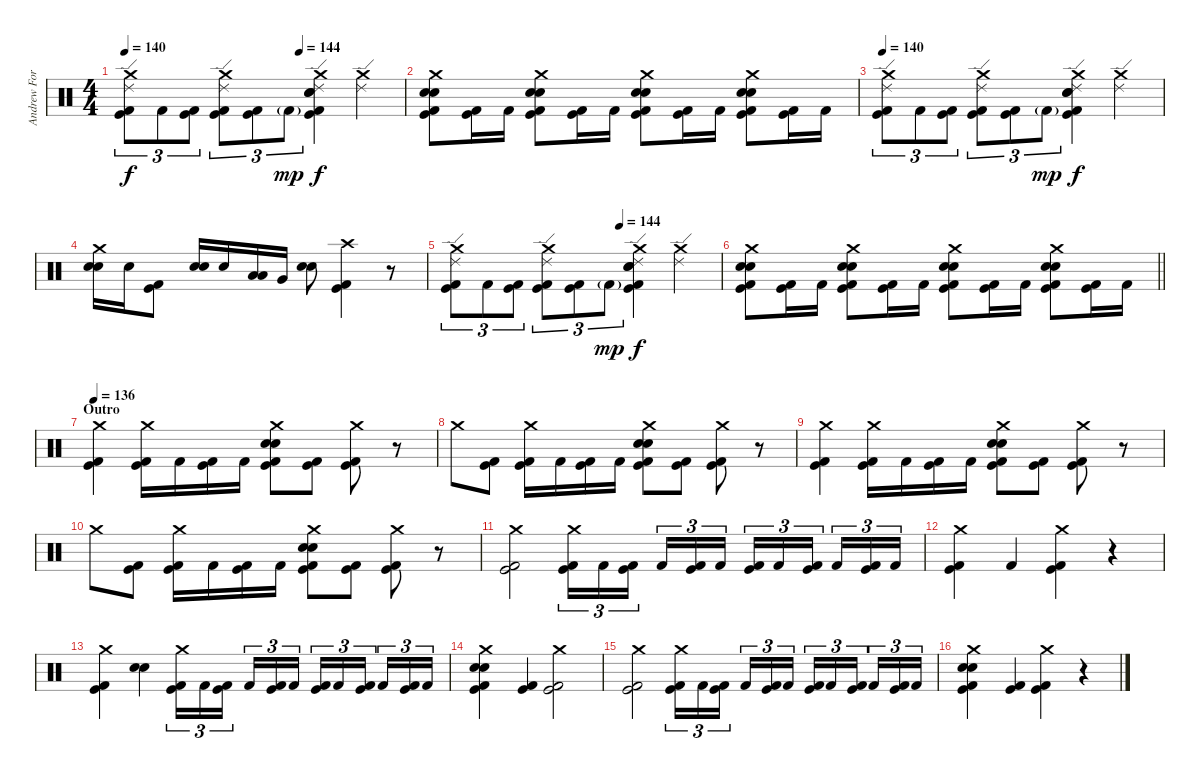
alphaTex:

\track ("Andrew Forsman" "Andrew For") {instrument percussion}
\staff {score}
\articulation defaults
\ts (4 4)
\tempo 140
\tempo (144 0.625)
\clef neutral
\ks c
("Crash medium (hit)" "Ride (edge) 2" "Kick (hit)" "Kick (hit) 2").8{tu (3 2) dy f} "Kick (hit) 2".8{tu (3 2)} ("Kick (hit)" "Kick (hit) 2").8{tu (3 2)} ("Crash medium (hit)" "Ride (edge) 2" "Kick (hit)" "Kick (hit) 2").8{tu (3 2)} ("Kick (hit)" "Kick (hit) 2").8{tu (3 2)} "Kick (hit) 2"{g}.8{tu (3 2) dy mp} ("Crash medium (hit)" "Ride (edge) 2" "Electric Snare (hit)" "Electric Snare (hit)" "Kick (hit)" "Kick (hit) 2").4{dy f} ("Crash medium (hit)" "Ride (edge) 2").4 |
("Crash medium (hit)" "Electric Snare (hit)" "Electric Snare (hit)" "Kick (hit)" "Kick (hit) 2").8 ("Kick (hit)" "Kick (hit) 2").16 "Kick (hit) 2".16 ("Crash medium (hit)" "Electric Snare (hit)" "Electric Snare (hit)" "Kick (hit)" "Kick (hit) 2").8 ("Kick (hit)" "Kick (hit) 2").16 "Kick (hit) 2".16 ("Crash medium (hit)" "Electric Snare (hit)" "Electric Snare (hit)" "Kick (hit)" "Kick (hit) 2").8 ("Kick (hit)" "Kick (hit) 2").16 "Kick (hit) 2".16 ("Crash medium (hit)" "Electric Snare (hit)" "Electric Snare (hit)" "Kick (hit)" "Kick (hit) 2").8 ("Kick (hit)" "Kick (hit) 2").16 "Kick (hit) 2".16 |
\tempo 140
("Crash medium (hit)" "Ride (edge) 2" "Kick (hit)" "Kick (hit) 2").8{tu (3 2)} "Kick (hit) 2".8{tu (3 2)} ("Kick (hit)" "Kick (hit) 2").8{tu (3 2)} ("Crash medium (hit)" "Ride (edge) 2" "Kick (hit)" "Kick (hit) 2").8{tu (3 2)} ("Kick (hit)" "Kick (hit) 2").8{tu (3 2)} "Kick (hit) 2"{g}.8{tu (3 2) dy mp} ("Crash medium (hit)" "Ride (edge) 2" "Electric Snare (hit)" "Electric Snare (hit)" "Kick (hit)" "Kick (hit) 2").4{dy f} ("Crash medium (hit)" "Ride (edge) 2").4 |
("Crash medium (hit)" "Electric Snare (hit)" "Electric Snare (hit)").16 "Electric Snare (hit)".16 ("Kick (hit)" "Kick (hit) 2").8 ("Electric Snare (hit)" "Electric Snare (hit)").16 "Electric Snare (hit)".16 ("Low Tom (hit)" "Low Tom (hit)").16 "Very Low Tom (hit)".16 ("Electric Snare (hit)" "Electric Snare (hit)").8 ("Crash high (hit)" "Kick (hit)" "Kick (hit) 2").4 r.8 |
\tempo (144 0.625)
("Crash medium (hit)" "Ride (edge) 2" "Kick (hit)" "Kick (hit) 2").8{tu (3 2)} "Kick (hit) 2".8{tu (3 2)} ("Kick (hit)" "Kick (hit) 2").8{tu (3 2)} ("Crash medium (hit)" "Ride (edge) 2" "Kick (hit)" "Kick (hit) 2").8{tu (3 2)} ("Kick (hit)" "Kick (hit) 2").8{tu (3 2)} "Kick (hit) 2"{g}.8{tu (3 2) dy mp} ("Crash medium (hit)" "Ride (edge) 2" "Electric Snare (hit)" "Electric Snare (hit)" "Kick (hit)" "Kick (hit) 2").4{dy f} ("Crash medium (hit)" "Ride (edge) 2").4 |
\barLineRight lightlight
("Crash medium (hit)" "Electric Snare (hit)" "Electric Snare (hit)" "Kick (hit)" "Kick (hit) 2").8 ("Kick (hit)" "Kick (hit) 2").16 "Kick (hit) 2".16 ("Crash medium (hit)" "Electric Snare (hit)" "Electric Snare (hit)" "Kick (hit)" "Kick (hit) 2").8 ("Kick (hit)" "Kick (hit) 2").16 "Kick (hit) 2".16 ("Crash medium (hit)" "Electric Snare (hit)" "Electric Snare (hit)" "Kick (hit)" "Kick (hit) 2").8 ("Kick (hit)" "Kick (hit) 2").16 "Kick (hit) 2".16 ("Crash medium (hit)" "Electric Snare (hit)" "Electric Snare (hit)" "Kick (hit)" "Kick (hit) 2").8 ("Kick (hit)" "Kick (hit) 2").16 "Kick (hit) 2".16 |
\section ("" "Outro")
\tempo 136
("Crash medium (hit)" "Kick (hit)" "Kick (hit) 2").4 ("Crash medium (hit)" "Kick (hit)" "Kick (hit) 2").16 "Kick (hit) 2".16 ("Kick (hit)" "Kick (hit) 2").16 "Kick (hit) 2".16 ("Crash medium (hit)" "Electric Snare (hit)" "Electric Snare (hit)" "Kick (hit)" "Kick (hit) 2").8 ("Kick (hit)" "Kick (hit) 2").8 ("Crash medium (hit)" "Kick (hit)" "Kick (hit) 2").8 r.8 |
"Crash medium (hit)".8 ("Kick (hit)" "Kick (hit) 2").8 ("Crash medium (hit)" "Kick (hit)" "Kick (hit) 2").16 "Kick (hit) 2".16 ("Kick (hit)" "Kick (hit) 2").16 "Kick (hit) 2".16 ("Crash medium (hit)" "Electric Snare (hit)" "Electric Snare (hit)" "Kick (hit)" "Kick (hit) 2").8 ("Kick (hit)" "Kick (hit) 2").8 ("Crash medium (hit)" "Kick (hit)" "Kick (hit) 2").8 r.8 |
("Crash medium (hit)" "Kick (hit)" "Kick (hit) 2").4 ("Crash medium (hit)" "Kick (hit)" "Kick (hit) 2").16 "Kick (hit) 2".16 ("Kick (hit)" "Kick (hit) 2").16 "Kick (hit) 2".16 ("Crash medium (hit)" "Electric Snare (hit)" "Electric Snare (hit)" "Kick (hit)" "Kick (hit) 2").8 ("Kick (hit)" "Kick (hit) 2").8 ("Crash medium (hit)" "Kick (hit)" "Kick (hit) 2").8 r.8 |
"Crash medium (hit)".8 ("Kick (hit)" "Kick (hit) 2").8 ("Crash medium (hit)" "Kick (hit)" "Kick (hit) 2").16 "Kick (hit) 2".16 ("Kick (hit)" "Kick (hit) 2").16 "Kick (hit) 2".16 ("Crash medium (hit)" "Electric Snare (hit)" "Electric Snare (hit)" "Kick (hit)" "Kick (hit) 2").8 ("Kick (hit)" "Kick (hit) 2").8 ("Crash medium (hit)" "Kick (hit)" "Kick (hit) 2").8 r.8 |
("Crash medium (hit)" "Kick (hit)" "Kick (hit) 2").2 ("Crash medium (hit)" "Kick (hit)" "Kick (hit) 2").16{tu (3 2)} "Kick (hit) 2".16{tu (3 2)} ("Kick (hit)" "Kick (hit) 2").16{tu (3 2) beam splitsecondary} "Kick (hit) 2".16{tu (3 2)} ("Kick (hit)" "Kick (hit) 2").16{tu (3 2)} "Kick (hit) 2".16{tu (3 2)} ("Kick (hit)" "Kick (hit) 2").16{tu (3 2)} "Kick (hit) 2".16{tu (3 2)} ("Kick (hit)" "Kick (hit) 2").16{tu (3 2) beam splitsecondary} "Kick (hit) 2".16{tu (3 2)} ("Kick (hit)" "Kick (hit) 2").16{tu (3 2)} "Kick (hit) 2".16{tu (3 2)} |
("Crash medium (hit)" "Kick (hit)" "Kick (hit) 2").4 "Kick (hit) 2".4 ("Crash medium (hit)" "Kick (hit)" "Kick (hit) 2").4 r.4 |
("Crash medium (hit)" "Kick (hit)" "Kick (hit) 2").4 ("Electric Snare (hit)" "Electric Snare (hit)").4 ("Crash medium (hit)" "Kick (hit)" "Kick (hit) 2").16{tu (3 2)} "Kick (hit) 2".16{tu (3 2)} ("Kick (hit)" "Kick (hit) 2").16{tu (3 2) beam splitsecondary} "Kick (hit) 2".16{tu (3 2)} ("Kick (hit)" "Kick (hit) 2").16{tu (3 2)} "Kick (hit) 2".16{tu (3 2)} ("Kick (hit)" "Kick (hit) 2").16{tu (3 2)} "Kick (hit) 2".16{tu (3 2)} ("Kick (hit)" "Kick (hit) 2").16{tu (3 2) beam splitsecondary} "Kick (hit) 2".16{tu (3 2)} ("Kick (hit)" "Kick (hit) 2").16{tu (3 2)} "Kick (hit) 2".16{tu (3 2)} |
("Crash medium (hit)" "Electric Snare (hit)" "Electric Snare (hit)" "Kick (hit)" "Kick (hit) 2").4 ("Kick (hit)" "Kick (hit) 2").4 ("Crash medium (hit)" "Kick (hit)" "Kick (hit) 2").2 |
("Crash medium (hit)" "Kick (hit)" "Kick (hit) 2").2 ("Crash medium (hit)" "Kick (hit)" "Kick (hit) 2").16{tu (3 2)} "Kick (hit) 2".16{tu (3 2)} ("Kick (hit)" "Kick (hit) 2").16{tu (3 2) beam splitsecondary} "Kick (hit) 2".16{tu (3 2)} ("Kick (hit)" "Kick (hit) 2").16{tu (3 2)} "Kick (hit) 2".16{tu (3 2)} ("Kick (hit)" "Kick (hit) 2").16{tu (3 2)} "Kick (hit) 2".16{tu (3 2)} ("Kick (hit)" "Kick (hit) 2").16{tu (3 2) beam splitsecondary} "Kick (hit) 2".16{tu (3 2)} ("Kick (hit)" "Kick (hit) 2").16{tu (3 2)} "Kick (hit) 2".16{tu (3 2)} |
("Crash medium (hit)" "Electric Snare (hit)" "Electric Snare (hit)" "Kick (hit)" "Kick (hit) 2").4 ("Kick (hit)" "Kick (hit) 2").4 ("Crash medium (hit)" "Kick (hit)" "Kick (hit) 2").4 r.4
